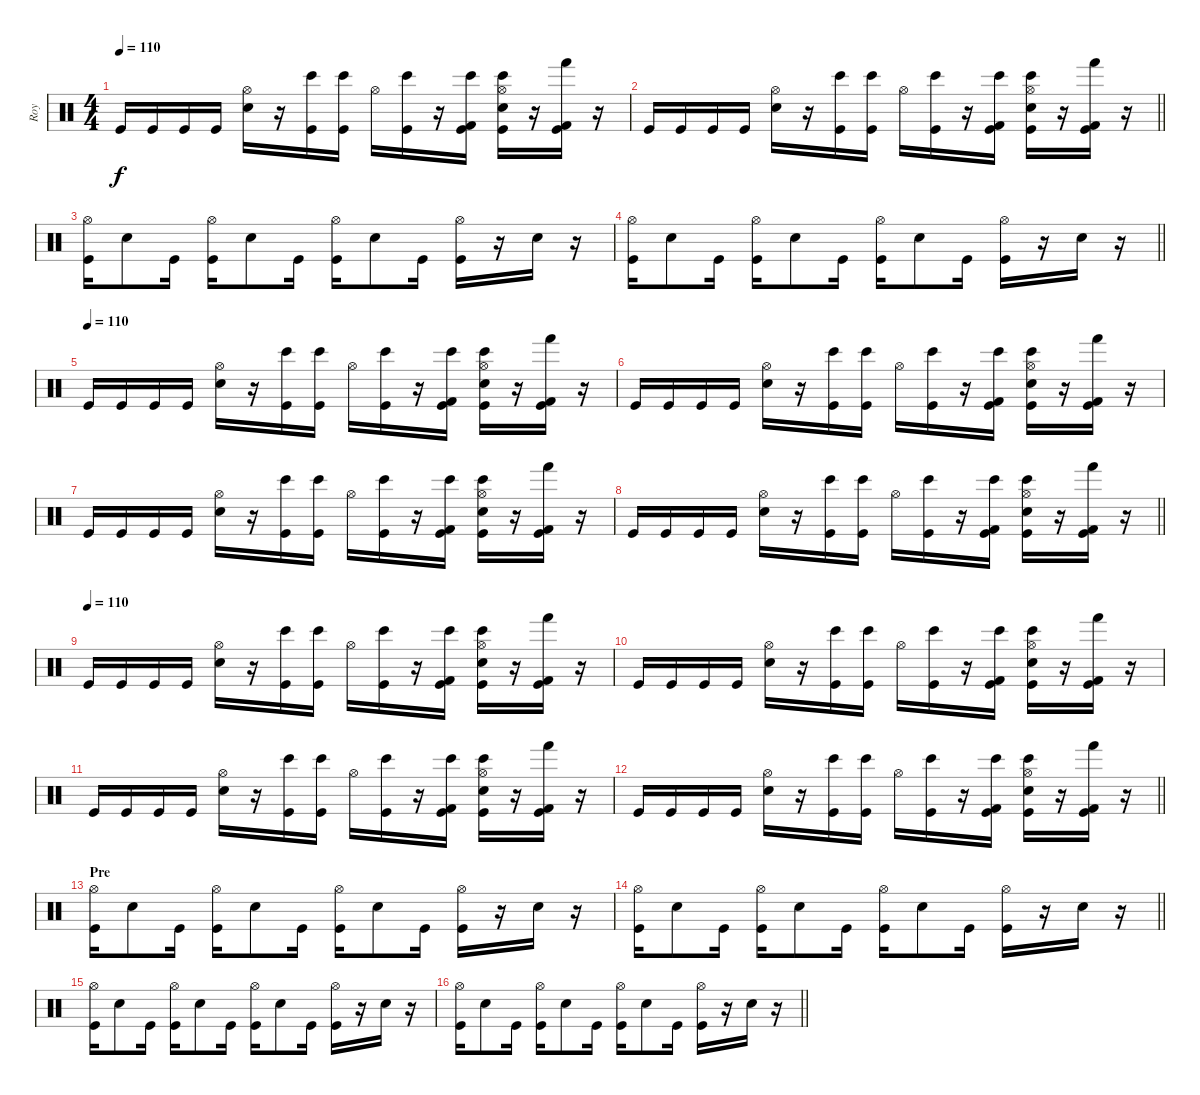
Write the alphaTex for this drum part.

\track ("Roy" "Roy") {instrument percussion}
\staff {score}
\articulation defaults
\ts (4 4)
\tempo 110
\clef neutral
\ks c "Kick (hit)".16{dy f} "Kick (hit)".16 "Kick (hit)".16 "Kick (hit)".16
("Hi-Hat (open)" "Electric Snare (hit)").16 r.16 ("Bongo High (hit)" "Kick (hit)").16 ("Bongo High (hit)" "Kick (hit)").16 "Hi-Hat (open)".16 ("Bongo High (hit)" "Kick (hit)").16 r.16 ("Kick (hit) 2" "Bongo High (hit)" "Kick (hit)").16 ("Hi-Hat (open)" "Electric Snare (hit)" "Bongo High (hit)" "Kick (hit)").16 r.16 ("Kick (hit) 2" "Hand (hit)" "Kick (hit)").16 r.16 |
\barLineRight lightlight "Kick (hit)".16 "Kick (hit)".16 "Kick (hit)".16 "Kick (hit)".16
("Hi-Hat (open)" "Electric Snare (hit)").16 r.16 ("Bongo High (hit)" "Kick (hit)").16 ("Bongo High (hit)" "Kick (hit)").16 "Hi-Hat (open)".16 ("Bongo High (hit)" "Kick (hit)").16 r.16 ("Kick (hit) 2" "Bongo High (hit)" "Kick (hit)").16 ("Hi-Hat (open)" "Electric Snare (hit)" "Bongo High (hit)" "Kick (hit)").16 r.16 ("Kick (hit) 2" "Hand (hit)" "Kick (hit)").16 r.16 |
\section ("" "")
("Hi-Hat (open)" "Kick (hit)").16 "Electric Snare (hit)".8 "Kick (hit)".16 ("Hi-Hat (open)" "Kick (hit)").16 "Electric Snare (hit)".8 "Kick (hit)".16 ("Hi-Hat (open)" "Kick (hit)").16 "Electric Snare (hit)".8 "Kick (hit)".16 ("Hi-Hat (open)" "Kick (hit)").16 r.16 "Electric Snare (hit)".16 r.16 |
\barLineRight lightlight
("Hi-Hat (open)" "Kick (hit)").16 "Electric Snare (hit)".8 "Kick (hit)".16 ("Hi-Hat (open)" "Kick (hit)").16 "Electric Snare (hit)".8 "Kick (hit)".16 ("Hi-Hat (open)" "Kick (hit)").16 "Electric Snare (hit)".8 "Kick (hit)".16 ("Hi-Hat (open)" "Kick (hit)").16 r.16 "Electric Snare (hit)".16 r.16 |
\section ("" "")
\tempo (110)
"Kick (hit)".16 "Kick (hit)".16 "Kick (hit)".16 "Kick (hit)".16 ("Hi-Hat (open)" "Electric Snare (hit)").16 r.16 ("Bongo High (hit)" "Kick (hit)").16 ("Bongo High (hit)" "Kick (hit)").16 "Hi-Hat (open)".16 ("Bongo High (hit)" "Kick (hit)").16 r.16 ("Kick (hit) 2" "Bongo High (hit)" "Kick (hit)").16 ("Hi-Hat (open)" "Electric Snare (hit)" "Bongo High (hit)" "Kick (hit)").16 r.16 ("Kick (hit) 2" "Hand (hit)" "Kick (hit)").16 r.16 |
"Kick (hit)".16 "Kick (hit)".16 "Kick (hit)".16 "Kick (hit)".16 ("Hi-Hat (open)" "Electric Snare (hit)").16 r.16 ("Bongo High (hit)" "Kick (hit)").16 ("Bongo High (hit)" "Kick (hit)").16 "Hi-Hat (open)".16 ("Bongo High (hit)" "Kick (hit)").16 r.16 ("Kick (hit) 2" "Bongo High (hit)" "Kick (hit)").16 ("Hi-Hat (open)" "Electric Snare (hit)" "Bongo High (hit)" "Kick (hit)").16 r.16 ("Kick (hit) 2" "Hand (hit)" "Kick (hit)").16 r.16 |
"Kick (hit)".16 "Kick (hit)".16 "Kick (hit)".16 "Kick (hit)".16 ("Hi-Hat (open)" "Electric Snare (hit)").16 r.16 ("Bongo High (hit)" "Kick (hit)").16 ("Bongo High (hit)" "Kick (hit)").16 "Hi-Hat (open)".16 ("Bongo High (hit)" "Kick (hit)").16 r.16 ("Kick (hit) 2" "Bongo High (hit)" "Kick (hit)").16 ("Hi-Hat (open)" "Electric Snare (hit)" "Bongo High (hit)" "Kick (hit)").16 r.16 ("Kick (hit) 2" "Hand (hit)" "Kick (hit)").16 r.16 |
\barLineRight lightlight "Kick (hit)".16 "Kick (hit)".16 "Kick (hit)".16 "Kick (hit)".16
("Hi-Hat (open)" "Electric Snare (hit)").16 r.16 ("Bongo High (hit)" "Kick (hit)").16 ("Bongo High (hit)" "Kick (hit)").16 "Hi-Hat (open)".16 ("Bongo High (hit)" "Kick (hit)").16 r.16 ("Kick (hit) 2" "Bongo High (hit)" "Kick (hit)").16 ("Hi-Hat (open)" "Electric Snare (hit)" "Bongo High (hit)" "Kick (hit)").16 r.16 ("Kick (hit) 2" "Hand (hit)" "Kick (hit)").16 r.16 |
\tempo (110)
"Kick (hit)".16 "Kick (hit)".16 "Kick (hit)".16 "Kick (hit)".16 ("Hi-Hat (open)" "Electric Snare (hit)").16 r.16 ("Bongo High (hit)" "Kick (hit)").16 ("Bongo High (hit)" "Kick (hit)").16 "Hi-Hat (open)".16 ("Bongo High (hit)" "Kick (hit)").16 r.16 ("Kick (hit) 2" "Bongo High (hit)" "Kick (hit)").16 ("Hi-Hat (open)" "Electric Snare (hit)" "Bongo High (hit)" "Kick (hit)").16 r.16 ("Kick (hit) 2" "Hand (hit)" "Kick (hit)").16 r.16 |
"Kick (hit)".16 "Kick (hit)".16 "Kick (hit)".16 "Kick (hit)".16 ("Hi-Hat (open)" "Electric Snare (hit)").16 r.16 ("Bongo High (hit)" "Kick (hit)").16 ("Bongo High (hit)" "Kick (hit)").16 "Hi-Hat (open)".16 ("Bongo High (hit)" "Kick (hit)").16 r.16 ("Kick (hit) 2" "Bongo High (hit)" "Kick (hit)").16 ("Hi-Hat (open)" "Electric Snare (hit)" "Bongo High (hit)" "Kick (hit)").16 r.16 ("Kick (hit) 2" "Hand (hit)" "Kick (hit)").16 r.16 |
"Kick (hit)".16 "Kick (hit)".16 "Kick (hit)".16 "Kick (hit)".16 ("Hi-Hat (open)" "Electric Snare (hit)").16 r.16 ("Bongo High (hit)" "Kick (hit)").16 ("Bongo High (hit)" "Kick (hit)").16 "Hi-Hat (open)".16 ("Bongo High (hit)" "Kick (hit)").16 r.16 ("Kick (hit) 2" "Bongo High (hit)" "Kick (hit)").16 ("Hi-Hat (open)" "Electric Snare (hit)" "Bongo High (hit)" "Kick (hit)").16 r.16 ("Kick (hit) 2" "Hand (hit)" "Kick (hit)").16 r.16 |
\barLineRight lightlight "Kick (hit)".16 "Kick (hit)".16 "Kick (hit)".16 "Kick (hit)".16
("Hi-Hat (open)" "Electric Snare (hit)").16 r.16 ("Bongo High (hit)" "Kick (hit)").16 ("Bongo High (hit)" "Kick (hit)").16 "Hi-Hat (open)".16 ("Bongo High (hit)" "Kick (hit)").16 r.16 ("Kick (hit) 2" "Bongo High (hit)" "Kick (hit)").16 ("Hi-Hat (open)" "Electric Snare (hit)" "Bongo High (hit)" "Kick (hit)").16 r.16 ("Kick (hit) 2" "Hand (hit)" "Kick (hit)").16 r.16 |
\section ("" "Pre")
("Hi-Hat (open)" "Kick (hit)").16 "Electric Snare (hit)".8 "Kick (hit)".16 ("Hi-Hat (open)" "Kick (hit)").16 "Electric Snare (hit)".8 "Kick (hit)".16 ("Hi-Hat (open)" "Kick (hit)").16 "Electric Snare (hit)".8 "Kick (hit)".16 ("Hi-Hat (open)" "Kick (hit)").16 r.16 "Electric Snare (hit)".16 r.16 |
\barLineRight lightlight
("Hi-Hat (open)" "Kick (hit)").16 "Electric Snare (hit)".8 "Kick (hit)".16 ("Hi-Hat (open)" "Kick (hit)").16 "Electric Snare (hit)".8 "Kick (hit)".16 ("Hi-Hat (open)" "Kick (hit)").16 "Electric Snare (hit)".8 "Kick (hit)".16 ("Hi-Hat (open)" "Kick (hit)").16 r.16 "Electric Snare (hit)".16 r.16 |
("Hi-Hat (open)" "Kick (hit)").16 "Electric Snare (hit)".8 "Kick (hit)".16 ("Hi-Hat (open)" "Kick (hit)").16 "Electric Snare (hit)".8 "Kick (hit)".16 ("Hi-Hat (open)" "Kick (hit)").16 "Electric Snare (hit)".8 "Kick (hit)".16 ("Hi-Hat (open)" "Kick (hit)").16 r.16 "Electric Snare (hit)".16 r.16 |
\barLineRight lightlight
("Hi-Hat (open)" "Kick (hit)").16 "Electric Snare (hit)".8 "Kick (hit)".16 ("Hi-Hat (open)" "Kick (hit)").16 "Electric Snare (hit)".8 "Kick (hit)".16 ("Hi-Hat (open)" "Kick (hit)").16 "Electric Snare (hit)".8 "Kick (hit)".16 ("Hi-Hat (open)" "Kick (hit)").16 r.16 "Electric Snare (hit)".16 r.16
